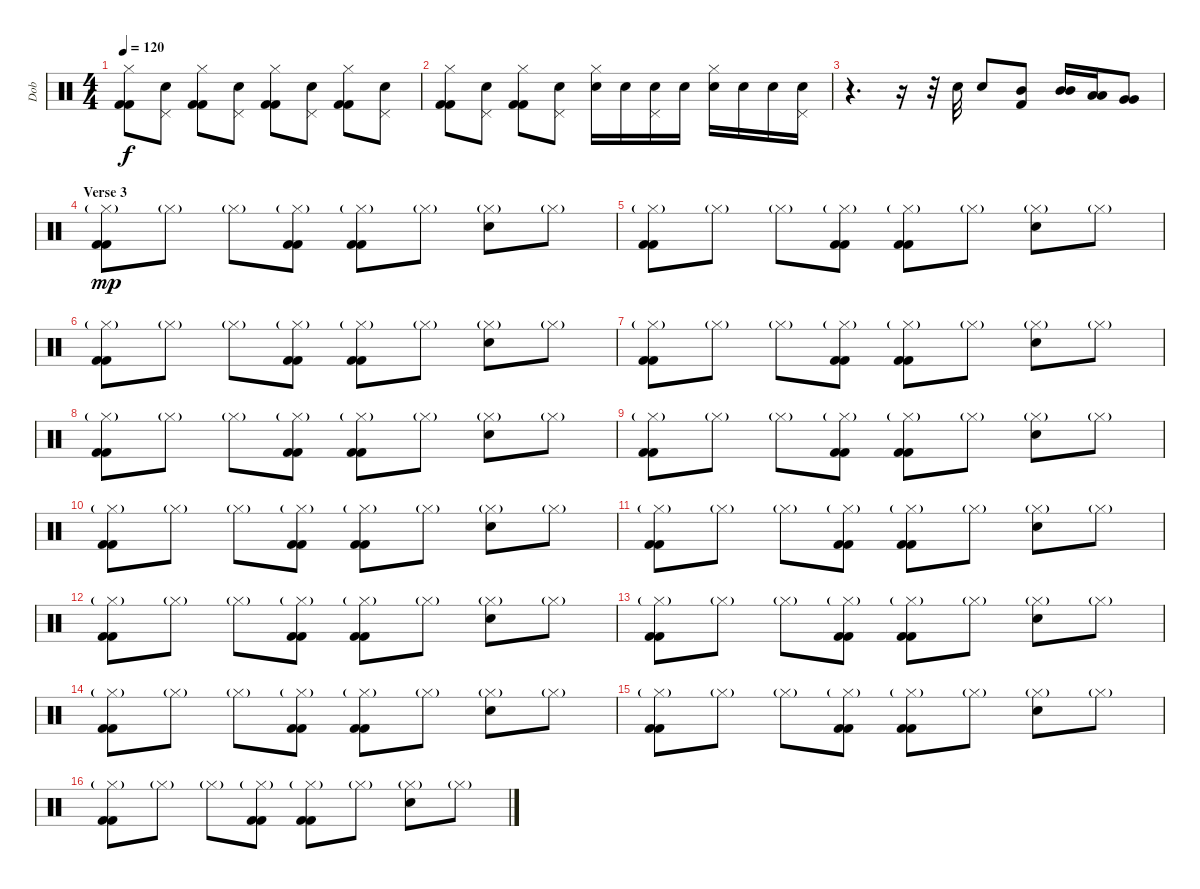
\track ("Dob" "Dob") {instrument percussion}
\staff {score}
\articulation defaults
\ts (4 4)
\tempo 120
\clef neutral
\ks c
("Hi-Hat (closed)" "Kick (hit) 2" "Kick (hit) 2").8{dy f} ("Pedal Hi-Hat (hit)" "Snare (hit) 2").8 ("Hi-Hat (closed)" "Kick (hit) 2" "Kick (hit) 2").8 ("Pedal Hi-Hat (hit)" "Snare (hit) 2").8 ("Hi-Hat (closed)" "Kick (hit) 2" "Kick (hit) 2").8 ("Pedal Hi-Hat (hit)" "Snare (hit) 2").8 ("Hi-Hat (closed)" "Kick (hit) 2" "Kick (hit) 2").8 ("Pedal Hi-Hat (hit)" "Snare (hit) 2").8 |
("Hi-Hat (closed)" "Kick (hit) 2" "Kick (hit) 2").8 ("Pedal Hi-Hat (hit)" "Snare (hit) 2").8 ("Hi-Hat (closed)" "Kick (hit) 2" "Kick (hit) 2").8 ("Pedal Hi-Hat (hit)" "Snare (hit) 2").8 ("Hi-Hat (closed)" "Snare (hit) 2").16 "Snare (hit) 2".16 ("Pedal Hi-Hat (hit)" "Snare (hit) 2").16 "Snare (hit) 2".16 ("Hi-Hat (closed)" "Snare (hit) 2").16 "Snare (hit) 2".16 "Snare (hit) 2".16 ("Pedal Hi-Hat (hit)" "Snare (hit) 2").16 |
r.4{d} r.16 r.32 "Snare (hit) 2".32 "Snare (hit) 2".8 ("Kick (hit) 2" "Mid Tom (hit)").8 ("Mid Tom (hit)" "Mid Tom (hit)").16 ("Low Tom (hit)" "Low Tom (hit)").16 ("Very Low Tom (hit)" "Very Low Tom (hit)").8 |
\section ("" "Verse 3")
("Hi-Hat (closed)"{g} "Kick (hit) 2" "Kick (hit) 2").8{dy mp} "Hi-Hat (closed)"{g}.8 "Hi-Hat (closed)"{g}.8 ("Hi-Hat (closed)"{g} "Kick (hit) 2" "Kick (hit) 2").8 ("Hi-Hat (closed)"{g} "Kick (hit) 2" "Kick (hit) 2").8 "Hi-Hat (closed)"{g}.8 ("Hi-Hat (closed)"{g} "Snare (hit) 2").8 "Hi-Hat (closed)"{g}.8 |
("Hi-Hat (closed)"{g} "Kick (hit) 2" "Kick (hit) 2").8 "Hi-Hat (closed)"{g}.8 "Hi-Hat (closed)"{g}.8 ("Hi-Hat (closed)"{g} "Kick (hit) 2" "Kick (hit) 2").8 ("Hi-Hat (closed)"{g} "Kick (hit) 2" "Kick (hit) 2").8 "Hi-Hat (closed)"{g}.8 ("Hi-Hat (closed)"{g} "Snare (hit) 2").8 "Hi-Hat (closed)"{g}.8 |
("Hi-Hat (closed)"{g} "Kick (hit) 2" "Kick (hit) 2").8 "Hi-Hat (closed)"{g}.8 "Hi-Hat (closed)"{g}.8 ("Hi-Hat (closed)"{g} "Kick (hit) 2" "Kick (hit) 2").8 ("Hi-Hat (closed)"{g} "Kick (hit) 2" "Kick (hit) 2").8 "Hi-Hat (closed)"{g}.8 ("Hi-Hat (closed)"{g} "Snare (hit) 2").8 "Hi-Hat (closed)"{g}.8 |
("Hi-Hat (closed)"{g} "Kick (hit) 2" "Kick (hit) 2").8 "Hi-Hat (closed)"{g}.8 "Hi-Hat (closed)"{g}.8 ("Hi-Hat (closed)"{g} "Kick (hit) 2" "Kick (hit) 2").8 ("Hi-Hat (closed)"{g} "Kick (hit) 2" "Kick (hit) 2").8 "Hi-Hat (closed)"{g}.8 ("Hi-Hat (closed)"{g} "Snare (hit) 2").8 "Hi-Hat (closed)"{g}.8 |
("Hi-Hat (closed)"{g} "Kick (hit) 2" "Kick (hit) 2").8 "Hi-Hat (closed)"{g}.8 "Hi-Hat (closed)"{g}.8 ("Hi-Hat (closed)"{g} "Kick (hit) 2" "Kick (hit) 2").8 ("Hi-Hat (closed)"{g} "Kick (hit) 2" "Kick (hit) 2").8 "Hi-Hat (closed)"{g}.8 ("Hi-Hat (closed)"{g} "Snare (hit) 2").8 "Hi-Hat (closed)"{g}.8 |
("Hi-Hat (closed)"{g} "Kick (hit) 2" "Kick (hit) 2").8 "Hi-Hat (closed)"{g}.8 "Hi-Hat (closed)"{g}.8 ("Hi-Hat (closed)"{g} "Kick (hit) 2" "Kick (hit) 2").8 ("Hi-Hat (closed)"{g} "Kick (hit) 2" "Kick (hit) 2").8 "Hi-Hat (closed)"{g}.8 ("Hi-Hat (closed)"{g} "Snare (hit) 2").8 "Hi-Hat (closed)"{g}.8 |
("Hi-Hat (closed)"{g} "Kick (hit) 2" "Kick (hit) 2").8 "Hi-Hat (closed)"{g}.8 "Hi-Hat (closed)"{g}.8 ("Hi-Hat (closed)"{g} "Kick (hit) 2" "Kick (hit) 2").8 ("Hi-Hat (closed)"{g} "Kick (hit) 2" "Kick (hit) 2").8 "Hi-Hat (closed)"{g}.8 ("Hi-Hat (closed)"{g} "Snare (hit) 2").8 "Hi-Hat (closed)"{g}.8 |
("Hi-Hat (closed)"{g} "Kick (hit) 2" "Kick (hit) 2").8 "Hi-Hat (closed)"{g}.8 "Hi-Hat (closed)"{g}.8 ("Hi-Hat (closed)"{g} "Kick (hit) 2" "Kick (hit) 2").8 ("Hi-Hat (closed)"{g} "Kick (hit) 2" "Kick (hit) 2").8 "Hi-Hat (closed)"{g}.8 ("Hi-Hat (closed)"{g} "Snare (hit) 2").8 "Hi-Hat (closed)"{g}.8 |
("Hi-Hat (closed)"{g} "Kick (hit) 2" "Kick (hit) 2").8 "Hi-Hat (closed)"{g}.8 "Hi-Hat (closed)"{g}.8 ("Hi-Hat (closed)"{g} "Kick (hit) 2" "Kick (hit) 2").8 ("Hi-Hat (closed)"{g} "Kick (hit) 2" "Kick (hit) 2").8 "Hi-Hat (closed)"{g}.8 ("Hi-Hat (closed)"{g} "Snare (hit) 2").8 "Hi-Hat (closed)"{g}.8 |
("Hi-Hat (closed)"{g} "Kick (hit) 2" "Kick (hit) 2").8 "Hi-Hat (closed)"{g}.8 "Hi-Hat (closed)"{g}.8 ("Hi-Hat (closed)"{g} "Kick (hit) 2" "Kick (hit) 2").8 ("Hi-Hat (closed)"{g} "Kick (hit) 2" "Kick (hit) 2").8 "Hi-Hat (closed)"{g}.8 ("Hi-Hat (closed)"{g} "Snare (hit) 2").8 "Hi-Hat (closed)"{g}.8 |
("Hi-Hat (closed)"{g} "Kick (hit) 2" "Kick (hit) 2").8 "Hi-Hat (closed)"{g}.8 "Hi-Hat (closed)"{g}.8 ("Hi-Hat (closed)"{g} "Kick (hit) 2" "Kick (hit) 2").8 ("Hi-Hat (closed)"{g} "Kick (hit) 2" "Kick (hit) 2").8 "Hi-Hat (closed)"{g}.8 ("Hi-Hat (closed)"{g} "Snare (hit) 2").8 "Hi-Hat (closed)"{g}.8 |
("Hi-Hat (closed)"{g} "Kick (hit) 2" "Kick (hit) 2").8 "Hi-Hat (closed)"{g}.8 "Hi-Hat (closed)"{g}.8 ("Hi-Hat (closed)"{g} "Kick (hit) 2" "Kick (hit) 2").8 ("Hi-Hat (closed)"{g} "Kick (hit) 2" "Kick (hit) 2").8 "Hi-Hat (closed)"{g}.8 ("Hi-Hat (closed)"{g} "Snare (hit) 2").8 "Hi-Hat (closed)"{g}.8 |
("Hi-Hat (closed)"{g} "Kick (hit) 2" "Kick (hit) 2").8 "Hi-Hat (closed)"{g}.8 "Hi-Hat (closed)"{g}.8 ("Hi-Hat (closed)"{g} "Kick (hit) 2" "Kick (hit) 2").8 ("Hi-Hat (closed)"{g} "Kick (hit) 2" "Kick (hit) 2").8 "Hi-Hat (closed)"{g}.8 ("Hi-Hat (closed)"{g} "Snare (hit) 2").8 "Hi-Hat (closed)"{g}.8
